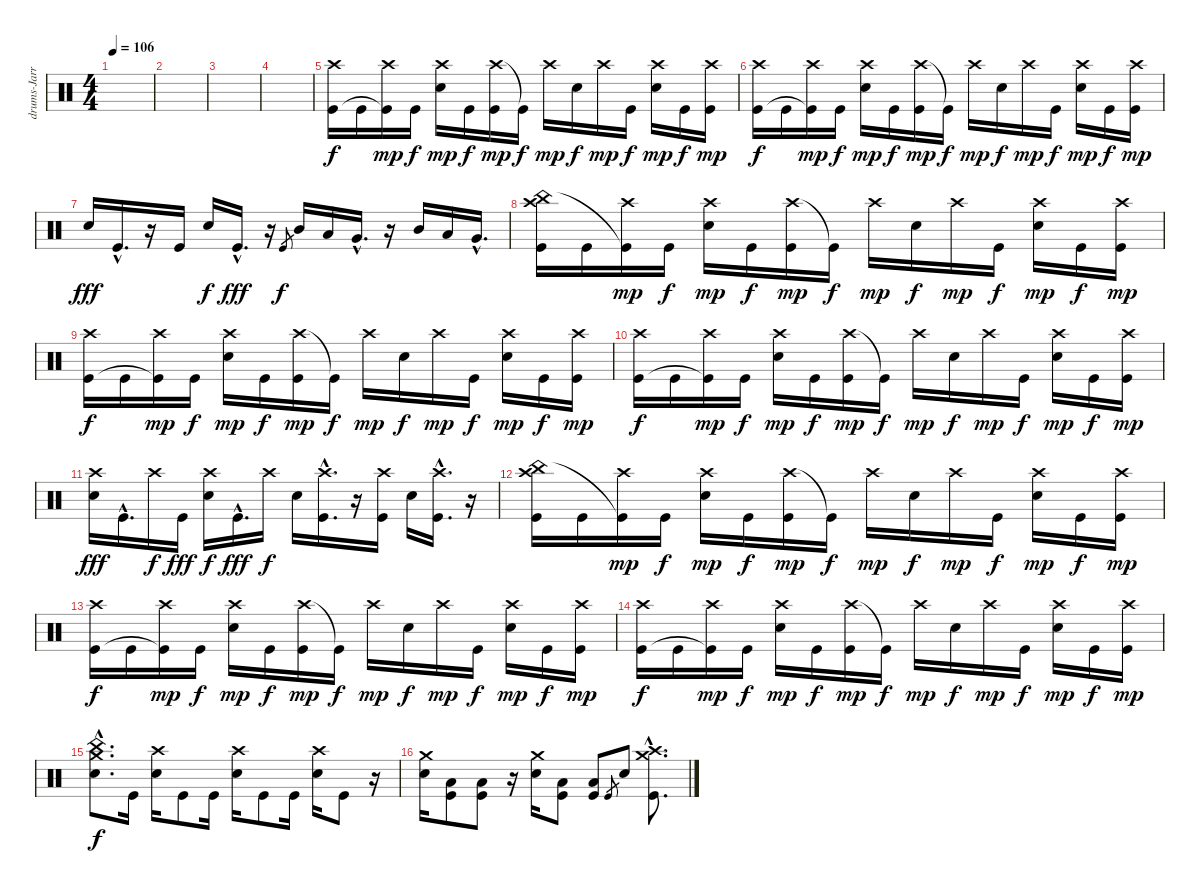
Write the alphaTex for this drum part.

\track ("drums-Jarrod Montague" "drums-Jarr") {instrument percussion}
\staff {score}
\articulation defaults
\ts (4 4)
\tempo 106
\clef neutral
\ks c
|
|
|
|
("Crash high (hit)" "Kick (hit)").16 "Kick (hit)".16 ("Crash high (hit)" "Kick (hit)"{t}).16{dy mp} "Kick (hit)".16{dy f} ("Crash high (hit)" "Snare (hit) 2").16{dy mp} "Kick (hit)".16{dy f} ("Crash high (hit)" "Kick (hit)").16{dy mp} "Kick (hit)"{t}.16{dy f} "Crash high (hit)".16{dy mp} "Snare (hit) 2".16{dy f} "Crash high (hit)".16{dy mp} "Kick (hit)".16{dy f} ("Crash high (hit)" "Snare (hit) 2").16{dy mp} "Kick (hit)".16{dy f} ("Crash high (hit)" "Kick (hit)").16{dy mp} |
("Crash high (hit)" "Kick (hit)").16{dy f} "Kick (hit)".16 ("Crash high (hit)" "Kick (hit)"{t}).16{dy mp} "Kick (hit)".16{dy f} ("Crash high (hit)" "Snare (hit) 2").16{dy mp} "Kick (hit)".16{dy f} ("Crash high (hit)" "Kick (hit)").16{dy mp} "Kick (hit)"{t}.16{dy f} "Crash high (hit)".16{dy mp} "Snare (hit) 2".16{dy f} "Crash high (hit)".16{dy mp} "Kick (hit)".16{dy f} ("Crash high (hit)" "Snare (hit) 2").16{dy mp} "Kick (hit)".16{dy f} ("Crash high (hit)" "Kick (hit)").16{dy mp} |
"Snare (hit) 2".16{dy fff} "Kick (hit)"{hac}.16{d} r.16 "Kick (hit)".16 "Snare (hit) 2".16{dy f} "Kick (hit)"{hac}.16{d dy fff} r.16 "Kick (hit)".8{gr dy f} "Mid Tom (hit)".16 "Low Tom (hit)".16 "Very Low Tom (hit)"{hac}.16{d} r.16 "Mid Tom (hit)".16 "Low Tom (hit)".16 "Very Low Tom (hit)"{hac}.16{d} |
("Crash high (hit)" "China (hit)" "Kick (hit)").16 "Kick (hit)".16 ("Crash high (hit)" "Kick (hit)"{t}).16{dy mp} "Kick (hit)".16{dy f} ("Crash high (hit)" "Snare (hit) 2").16{dy mp} "Kick (hit)".16{dy f} ("Crash high (hit)" "Kick (hit)").16{dy mp} "Kick (hit)"{t}.16{dy f} "Crash high (hit)".16{dy mp} "Snare (hit) 2".16{dy f} "Crash high (hit)".16{dy mp} "Kick (hit)".16{dy f} ("Crash high (hit)" "Snare (hit) 2").16{dy mp} "Kick (hit)".16{dy f} ("Crash high (hit)" "Kick (hit)").16{dy mp} |
("Crash high (hit)" "Kick (hit)").16{dy f} "Kick (hit)".16 ("Crash high (hit)" "Kick (hit)"{t}).16{dy mp} "Kick (hit)".16{dy f} ("Crash high (hit)" "Snare (hit) 2").16{dy mp} "Kick (hit)".16{dy f} ("Crash high (hit)" "Kick (hit)").16{dy mp} "Kick (hit)"{t}.16{dy f} "Crash high (hit)".16{dy mp} "Snare (hit) 2".16{dy f} "Crash high (hit)".16{dy mp} "Kick (hit)".16{dy f} ("Crash high (hit)" "Snare (hit) 2").16{dy mp} "Kick (hit)".16{dy f} ("Crash high (hit)" "Kick (hit)").16{dy mp} |
("Crash high (hit)" "Kick (hit)").16{dy f} "Kick (hit)".16 ("Crash high (hit)" "Kick (hit)"{t}).16{dy mp} "Kick (hit)".16{dy f} ("Crash high (hit)" "Snare (hit) 2").16{dy mp} "Kick (hit)".16{dy f} ("Crash high (hit)" "Kick (hit)").16{dy mp} "Kick (hit)"{t}.16{dy f} "Crash high (hit)".16{dy mp} "Snare (hit) 2".16{dy f} "Crash high (hit)".16{dy mp} "Kick (hit)".16{dy f} ("Crash high (hit)" "Snare (hit) 2").16{dy mp} "Kick (hit)".16{dy f} ("Crash high (hit)" "Kick (hit)").16{dy mp} |
("Crash high (hit)" "Snare (hit) 2").16{dy fff} "Kick (hit)"{hac}.16{d} "Crash high (hit)".16{dy f} "Kick (hit)".16{dy fff} ("Crash high (hit)" "Snare (hit) 2").16{dy f} "Kick (hit)"{hac}.16{d dy fff} "Crash high (hit)".16{dy f} "Snare (hit) 2".16 ("Crash high (hit)"{hac} "Kick (hit)"{hac}).16{d} r.16 ("Crash high (hit)" "Kick (hit)").16 "Snare (hit) 2".16 ("Crash high (hit)"{hac} "Kick (hit)"{hac}).16{d} r.16 |
("Crash high (hit)" "China (hit)" "Kick (hit)").16 "Kick (hit)".16 ("Crash high (hit)" "Kick (hit)"{t}).16{dy mp} "Kick (hit)".16{dy f} ("Crash high (hit)" "Snare (hit) 2").16{dy mp} "Kick (hit)".16{dy f} ("Crash high (hit)" "Kick (hit)").16{dy mp} "Kick (hit)"{t}.16{dy f} "Crash high (hit)".16{dy mp} "Snare (hit) 2".16{dy f} "Crash high (hit)".16{dy mp} "Kick (hit)".16{dy f} ("Crash high (hit)" "Snare (hit) 2").16{dy mp} "Kick (hit)".16{dy f} ("Crash high (hit)" "Kick (hit)").16{dy mp} |
("Crash high (hit)" "Kick (hit)").16{dy f} "Kick (hit)".16 ("Crash high (hit)" "Kick (hit)"{t}).16{dy mp} "Kick (hit)".16{dy f} ("Crash high (hit)" "Snare (hit) 2").16{dy mp} "Kick (hit)".16{dy f} ("Crash high (hit)" "Kick (hit)").16{dy mp} "Kick (hit)"{t}.16{dy f} "Crash high (hit)".16{dy mp} "Snare (hit) 2".16{dy f} "Crash high (hit)".16{dy mp} "Kick (hit)".16{dy f} ("Crash high (hit)" "Snare (hit) 2").16{dy mp} "Kick (hit)".16{dy f} ("Crash high (hit)" "Kick (hit)").16{dy mp} |
("Crash high (hit)" "Kick (hit)").16{dy f} "Kick (hit)".16 ("Crash high (hit)" "Kick (hit)"{t}).16{dy mp} "Kick (hit)".16{dy f} ("Crash high (hit)" "Snare (hit) 2").16{dy mp} "Kick (hit)".16{dy f} ("Crash high (hit)" "Kick (hit)").16{dy mp} "Kick (hit)"{t}.16{dy f} "Crash high (hit)".16{dy mp} "Snare (hit) 2".16{dy f} "Crash high (hit)".16{dy mp} "Kick (hit)".16{dy f} ("Crash high (hit)" "Snare (hit) 2").16{dy mp} "Kick (hit)".16{dy f} ("Crash high (hit)" "Kick (hit)").16{dy mp} |
("China (hit)"{hac} "Crash medium (hit)"{hac} "Snare (hit) 2"{hac}).8{d dy f} "Kick (hit)".16 ("Crash high (hit)" "Snare (hit) 2").16 "Kick (hit)".8 "Kick (hit)".16 ("Crash high (hit)" "Snare (hit) 2").16 "Kick (hit)".8 "Kick (hit)".16 ("Crash high (hit)" "Snare (hit) 2").16 "Kick (hit)".8 r.16 |
("Crash medium (hit)" "Snare (hit) 2").16 ("Low Floor Tom (hit)" "Kick (hit)").8 ("Low Floor Tom (hit)" "Kick (hit)").8 r.16 ("Crash medium (hit)" "Snare (hit) 2").16 ("Low Floor Tom (hit)" "Kick (hit)").8 ("Low Floor Tom (hit)" "Kick (hit)").8 "Kick (hit)".8{gr} "Snare (hit) 2".8 ("Crash medium (hit)"{hac} "Crash high (hit)"{hac} "Kick (hit)"{hac}).8{d}
